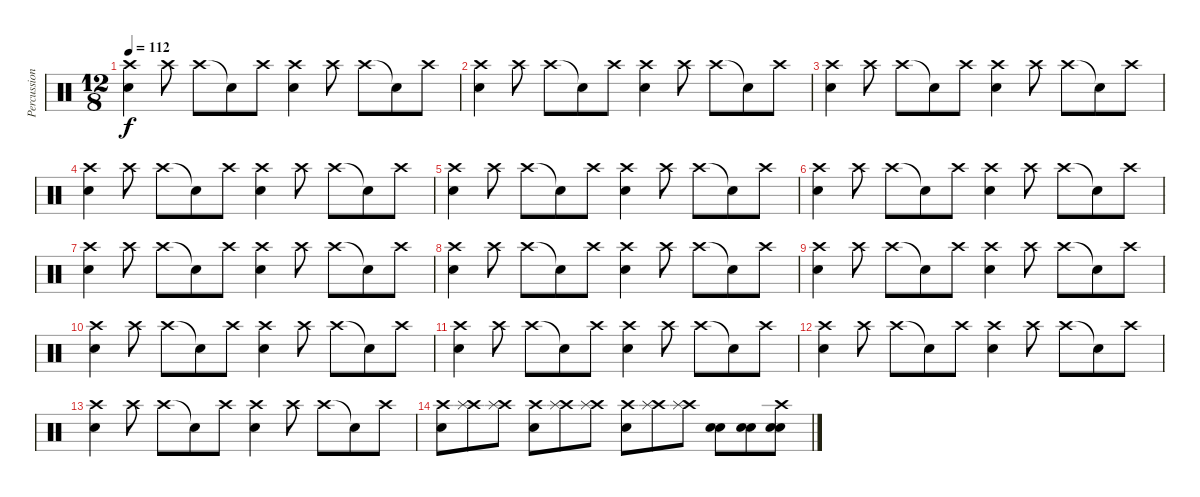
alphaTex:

\track ("Percussions" "Percussion") {instrument percussion}
\staff {score}
\articulation defaults
\ts (12 8)
\tempo 112
\clef neutral
\ks c
("Snare (hit) 2" "Crash high (hit)").4{dy f} "Crash high (hit)".8 "Crash high (hit)".8 "Snare (hit)"{t}.8 "Crash high (hit)".8 ("Snare (hit) 2" "Crash high (hit)").4 "Crash high (hit)".8 "Crash high (hit)".8 "Snare (hit)"{t}.8 "Crash high (hit)".8 |
("Snare (hit) 2" "Crash high (hit)").4 "Crash high (hit)".8 "Crash high (hit)".8 "Snare (hit)"{t}.8 "Crash high (hit)".8 ("Snare (hit) 2" "Crash high (hit)").4 "Crash high (hit)".8 "Crash high (hit)".8 "Snare (hit)"{t}.8 "Crash high (hit)".8 |
("Snare (hit) 2" "Crash high (hit)").4 "Crash high (hit)".8 "Crash high (hit)".8 "Snare (hit)"{t}.8 "Crash high (hit)".8 ("Snare (hit) 2" "Crash high (hit)").4 "Crash high (hit)".8 "Crash high (hit)".8 "Snare (hit)"{t}.8 "Crash high (hit)".8 |
("Snare (hit) 2" "Crash high (hit)").4 "Crash high (hit)".8 "Crash high (hit)".8 "Snare (hit)"{t}.8 "Crash high (hit)".8 ("Snare (hit) 2" "Crash high (hit)").4 "Crash high (hit)".8 "Crash high (hit)".8 "Snare (hit)"{t}.8 "Crash high (hit)".8 |
("Snare (hit) 2" "Crash high (hit)").4 "Crash high (hit)".8 "Crash high (hit)".8 "Snare (hit)"{t}.8 "Crash high (hit)".8 ("Snare (hit) 2" "Crash high (hit)").4 "Crash high (hit)".8 "Crash high (hit)".8 "Snare (hit)"{t}.8 "Crash high (hit)".8 |
("Snare (hit) 2" "Crash high (hit)").4 "Crash high (hit)".8 "Crash high (hit)".8 "Snare (hit)"{t}.8 "Crash high (hit)".8 ("Snare (hit) 2" "Crash high (hit)").4 "Crash high (hit)".8 "Crash high (hit)".8 "Snare (hit)"{t}.8 "Crash high (hit)".8 |
("Snare (hit) 2" "Crash high (hit)").4 "Crash high (hit)".8 "Crash high (hit)".8 "Snare (hit)"{t}.8 "Crash high (hit)".8 ("Snare (hit) 2" "Crash high (hit)").4 "Crash high (hit)".8 "Crash high (hit)".8 "Snare (hit)"{t}.8 "Crash high (hit)".8 |
("Snare (hit) 2" "Crash high (hit)").4 "Crash high (hit)".8 "Crash high (hit)".8 "Snare (hit)"{t}.8 "Crash high (hit)".8 ("Snare (hit) 2" "Crash high (hit)").4 "Crash high (hit)".8 "Crash high (hit)".8 "Snare (hit)"{t}.8 "Crash high (hit)".8 |
("Snare (hit) 2" "Crash high (hit)").4 "Crash high (hit)".8 "Crash high (hit)".8 "Snare (hit)"{t}.8 "Crash high (hit)".8 ("Snare (hit) 2" "Crash high (hit)").4 "Crash high (hit)".8 "Crash high (hit)".8 "Snare (hit)"{t}.8 "Crash high (hit)".8 |
("Snare (hit) 2" "Crash high (hit)").4 "Crash high (hit)".8 "Crash high (hit)".8 "Snare (hit)"{t}.8 "Crash high (hit)".8 ("Snare (hit) 2" "Crash high (hit)").4 "Crash high (hit)".8 "Crash high (hit)".8 "Snare (hit)"{t}.8 "Crash high (hit)".8 |
("Snare (hit) 2" "Crash high (hit)").4 "Crash high (hit)".8 "Crash high (hit)".8 "Snare (hit)"{t}.8 "Crash high (hit)".8 ("Snare (hit) 2" "Crash high (hit)").4 "Crash high (hit)".8 "Crash high (hit)".8 "Snare (hit)"{t}.8 "Crash high (hit)".8 |
("Snare (hit) 2" "Crash high (hit)").4 "Crash high (hit)".8 "Crash high (hit)".8 "Snare (hit)"{t}.8 "Crash high (hit)".8 ("Snare (hit) 2" "Crash high (hit)").4 "Crash high (hit)".8 "Crash high (hit)".8 "Snare (hit)"{t}.8 "Crash high (hit)".8 |
("Snare (hit) 2" "Crash high (hit)").4 "Crash high (hit)".8 "Crash high (hit)".8 "Snare (hit)"{t}.8 "Crash high (hit)".8 ("Snare (hit) 2" "Crash high (hit)").4 "Crash high (hit)".8 "Crash high (hit)".8 "Snare (hit)"{t}.8 "Crash high (hit)".8 |
("Snare (hit) 2" "Crash high (hit)").8 ("Crash high (hit)" "Splash (hit)").8 ("Crash high (hit)" "Splash (hit)").8 ("Snare (hit) 2" "Crash high (hit)").8 ("Crash high (hit)" "Splash (hit)").8 ("Crash high (hit)" "Splash (hit)").8 ("Snare (hit) 2" "Crash high (hit)").8 ("Crash high (hit)" "Splash (hit)").8 ("Crash high (hit)" "Splash (hit)").8 ("Snare (hit) 2" "Snare (hit) 2").8 ("Snare (hit) 2" "Snare (hit) 2").8 ("Snare (hit) 2" "Snare (hit) 2" "Crash high (hit)").8
